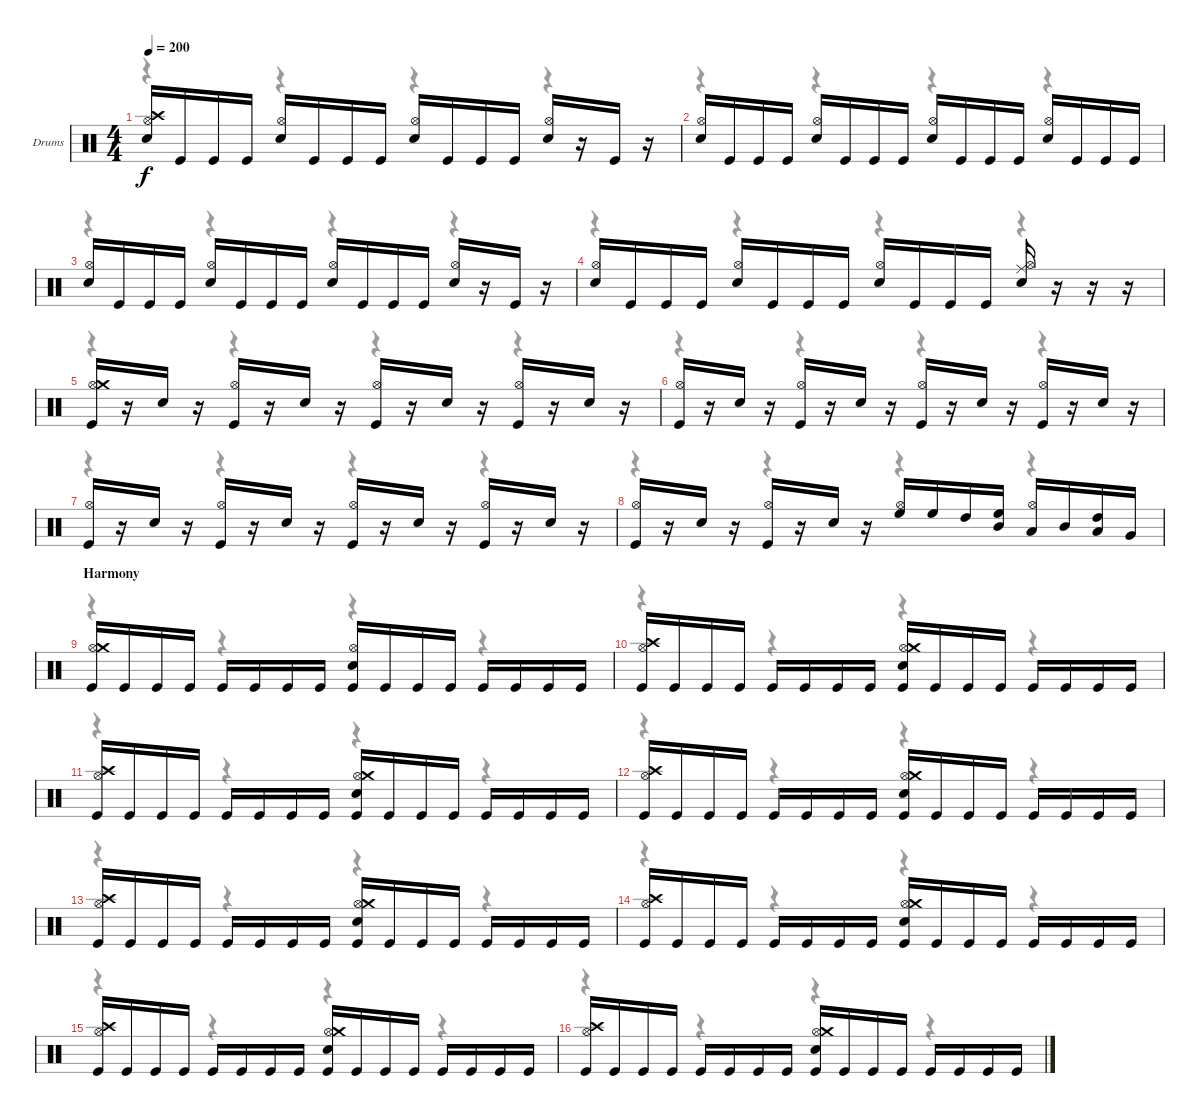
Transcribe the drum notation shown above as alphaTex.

\bracketExtendMode nobrackets
\firstSystemTrackNameOrientation horizontal
\otherSystemsTrackNameOrientation horizontal
\track ("Drumkit" "Drums") {instrument percussion}
\staff {score}
\articulation defaults
\voice
\ts (4 4)
\tempo 200
\clef neutral
\ks c
("Snare (hit) 2" "Hi-Hat (open)" "Crash high (hit)").16{dy f} "Kick (hit)".16 "Kick (hit)".16 "Kick (hit)".16 ("Snare (hit) 2" "Hi-Hat (open)").16 "Kick (hit)".16 "Kick (hit)".16 "Kick (hit)".16 ("Hi-Hat (open)" "Snare (hit) 2").16 "Kick (hit)".16 "Kick (hit)".16 "Kick (hit)".16 ("Hi-Hat (open)" "Snare (hit) 2").16 r.16 "Kick (hit)".16 r.16 |
("Snare (hit) 2" "Hi-Hat (open)").16 "Kick (hit)".16 "Kick (hit)".16 "Kick (hit)".16 ("Snare (hit) 2" "Hi-Hat (open)").16 "Kick (hit)".16 "Kick (hit)".16 "Kick (hit)".16 ("Snare (hit) 2" "Hi-Hat (open)").16 "Kick (hit)".16 "Kick (hit)".16 "Kick (hit)".16 ("Hi-Hat (open)" "Snare (hit) 2").16 "Kick (hit)".16 "Kick (hit)".16 "Kick (hit)".16 |
("Snare (hit) 2" "Hi-Hat (open)").16 "Kick (hit)".16 "Kick (hit)".16 "Kick (hit)".16 ("Snare (hit) 2" "Hi-Hat (open)").16 "Kick (hit)".16 "Kick (hit)".16 "Kick (hit)".16 ("Snare (hit) 2" "Hi-Hat (open)").16 "Kick (hit)".16 "Kick (hit)".16 "Kick (hit)".16 ("Snare (hit) 2" "Hi-Hat (open)").16 r.16 "Kick (hit)".16 r.16 |
("Snare (hit) 2" "Hi-Hat (open)").16 "Kick (hit)".16 "Kick (hit)".16 "Kick (hit)".16 ("Snare (hit) 2" "Hi-Hat (open)").16 "Kick (hit)".16 "Kick (hit)".16 "Kick (hit)".16 ("Snare (hit) 2" "Hi-Hat (open)").16 "Kick (hit)".16 "Kick (hit)".16 "Kick (hit)".16 ("Snare (hit) 2" "Hi-Hat (open)" "Ride (middle)").16 r.16 r.16 r.16 |
("Kick (hit)" "Hi-Hat (open)" "Crash medium (hit)").16 r.16 "Snare (hit) 2".16 r.16 ("Kick (hit)" "Hi-Hat (open)").16 r.16 "Snare (hit) 2".16 r.16 ("Kick (hit)" "Hi-Hat (open)").16 r.16 "Snare (hit) 2".16 r.16 ("Kick (hit)" "Hi-Hat (open)").16 r.16 "Snare (hit) 2".16 r.16 |
("Kick (hit)" "Hi-Hat (open)").16 r.16 "Snare (hit) 2".16 r.16 ("Kick (hit)" "Hi-Hat (open)").16 r.16 "Snare (hit) 2".16 r.16 ("Kick (hit)" "Hi-Hat (open)").16 r.16 "Snare (hit) 2".16 r.16 ("Kick (hit)" "Hi-Hat (open)").16 r.16 "Snare (hit) 2".16 r.16 |
("Kick (hit)" "Hi-Hat (open)").16 r.16 "Snare (hit) 2".16 r.16 ("Kick (hit)" "Hi-Hat (open)").16 r.16 "Snare (hit) 2".16 r.16 ("Kick (hit)" "Hi-Hat (open)").16 r.16 "Snare (hit) 2".16 r.16 ("Kick (hit)" "Hi-Hat (open)").16 r.16 "Snare (hit) 2".16 r.16 |
("Kick (hit)" "Hi-Hat (open)").16 r.16 "Snare (hit) 2".16 r.16 ("Kick (hit)" "Hi-Hat (open)").16 r.16 "Snare (hit) 2".16 r.16 ("High Floor Tom (hit)" "Hi-Hat (open)").16 "High Floor Tom (hit)".16 "High Tom (hit)".16 ("Mid Tom (hit)" "High Floor Tom (hit)").16 ("Low Tom (hit)" "Hi-Hat (open)").16 "Mid Tom (hit)".16 ("High Tom (hit)" "Low Tom (hit)").16 "Very Low Tom (hit)".16 |
\section ("" "Harmony")
("Hi-Hat (open)" "Kick (hit)" "Crash medium (hit)").16 "Kick (hit)".16 "Kick (hit)".16 "Kick (hit)".16 "Kick (hit)".16 "Kick (hit)".16 "Kick (hit)".16 "Kick (hit)".16 ("Hi-Hat (open)" "Kick (hit)" "Snare (hit) 2").16 "Kick (hit)".16 "Kick (hit)".16 "Kick (hit)".16 "Kick (hit)".16 "Kick (hit)".16 "Kick (hit)".16 "Kick (hit)".16 |
("Hi-Hat (open)" "Kick (hit)" "Crash high (hit)").16 "Kick (hit)".16 "Kick (hit)".16 "Kick (hit)".16 "Kick (hit)".16 "Kick (hit)".16 "Kick (hit)".16 "Kick (hit)".16 ("Hi-Hat (open)" "Kick (hit)" "Snare (hit) 2" "Crash medium (hit)").16 "Kick (hit)".16 "Kick (hit)".16 "Kick (hit)".16 "Kick (hit)".16 "Kick (hit)".16 "Kick (hit)".16 "Kick (hit)".16 |
("Hi-Hat (open)" "Kick (hit)" "Crash high (hit)").16 "Kick (hit)".16 "Kick (hit)".16 "Kick (hit)".16 "Kick (hit)".16 "Kick (hit)".16 "Kick (hit)".16 "Kick (hit)".16 ("Hi-Hat (open)" "Kick (hit)" "Snare (hit) 2" "Crash medium (hit)").16 "Kick (hit)".16 "Kick (hit)".16 "Kick (hit)".16 "Kick (hit)".16 "Kick (hit)".16 "Kick (hit)".16 "Kick (hit)".16 |
("Hi-Hat (open)" "Kick (hit)" "Crash high (hit)").16 "Kick (hit)".16 "Kick (hit)".16 "Kick (hit)".16 "Kick (hit)".16 "Kick (hit)".16 "Kick (hit)".16 "Kick (hit)".16 ("Hi-Hat (open)" "Kick (hit)" "Snare (hit) 2" "Crash medium (hit)").16 "Kick (hit)".16 "Kick (hit)".16 "Kick (hit)".16 "Kick (hit)".16 "Kick (hit)".16 "Kick (hit)".16 "Kick (hit)".16 |
("Hi-Hat (open)" "Kick (hit)" "Crash high (hit)").16 "Kick (hit)".16 "Kick (hit)".16 "Kick (hit)".16 "Kick (hit)".16 "Kick (hit)".16 "Kick (hit)".16 "Kick (hit)".16 ("Hi-Hat (open)" "Kick (hit)" "Snare (hit) 2" "Crash medium (hit)").16 "Kick (hit)".16 "Kick (hit)".16 "Kick (hit)".16 "Kick (hit)".16 "Kick (hit)".16 "Kick (hit)".16 "Kick (hit)".16 |
("Hi-Hat (open)" "Kick (hit)" "Crash high (hit)").16 "Kick (hit)".16 "Kick (hit)".16 "Kick (hit)".16 "Kick (hit)".16 "Kick (hit)".16 "Kick (hit)".16 "Kick (hit)".16 ("Hi-Hat (open)" "Kick (hit)" "Snare (hit) 2" "Crash medium (hit)").16 "Kick (hit)".16 "Kick (hit)".16 "Kick (hit)".16 "Kick (hit)".16 "Kick (hit)".16 "Kick (hit)".16 "Kick (hit)".16 |
("Hi-Hat (open)" "Kick (hit)" "Crash high (hit)").16 "Kick (hit)".16 "Kick (hit)".16 "Kick (hit)".16 "Kick (hit)".16 "Kick (hit)".16 "Kick (hit)".16 "Kick (hit)".16 ("Hi-Hat (open)" "Kick (hit)" "Snare (hit) 2" "Crash medium (hit)").16 "Kick (hit)".16 "Kick (hit)".16 "Kick (hit)".16 "Kick (hit)".16 "Kick (hit)".16 "Kick (hit)".16 "Kick (hit)".16 |
("Hi-Hat (open)" "Kick (hit)" "Crash high (hit)").16 "Kick (hit)".16 "Kick (hit)".16 "Kick (hit)".16 "Kick (hit)".16 "Kick (hit)".16 "Kick (hit)".16 "Kick (hit)".16 ("Hi-Hat (open)" "Kick (hit)" "Snare (hit) 2" "Crash medium (hit)").16 "Kick (hit)".16 "Kick (hit)".16 "Kick (hit)".16 "Kick (hit)".16 "Kick (hit)".16 "Kick (hit)".16 "Kick (hit)".16
\voice
\clef neutral
\ottava regular
\simile none
\ks c
r.4{dy mf} r.4 r.4 r.4 |
r.4 r.4 r.4 r.4 |
r.4 r.4 r.4 r.4 |
r.4 r.4 r.4 r.4 |
r.4 r.4 r.4 r.4 |
r.4 r.4 r.4 r.4 |
r.4 r.4 r.4 r.4 |
r.4 r.4 r.4 r.4 |
r.4 r.4 r.4 r.4 |
r.4 r.4 r.4 r.4 |
r.4 r.4 r.4 r.4 |
r.4 r.4 r.4 r.4 |
r.4 r.4 r.4 r.4 |
r.4 r.4 r.4 r.4 |
r.4 r.4 r.4 r.4 |
r.4 r.4 r.4 r.4
